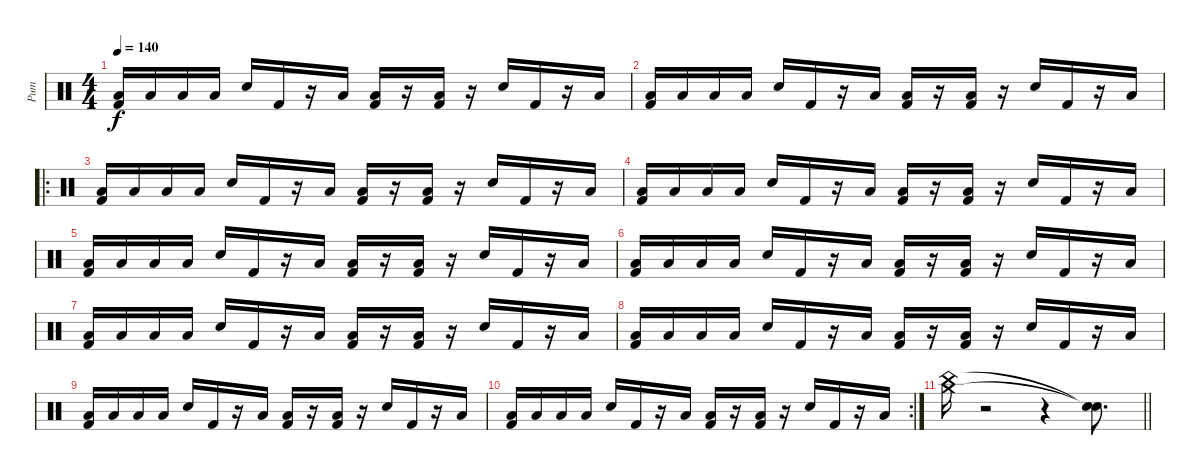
\track ("Рит" "Рит") {instrument percussion}
\staff {score}
\articulation defaults
\ts (4 4)
\tempo 140
\clef neutral
\ks c
("Low Floor Tom (hit)" "Kick (hit) 2").16{dy f} "Low Floor Tom (hit)".16 "Low Floor Tom (hit)".16 "Low Floor Tom (hit)".16 "Snare (hit) 2".16 "Kick (hit) 2".16 r.16 "Low Tom (hit)".16 ("Low Floor Tom (hit)" "Kick (hit) 2").16 r.16 ("Low Floor Tom (hit)" "Kick (hit) 2").16 r.16 "Snare (hit) 2".16 "Kick (hit) 2".16 r.16 "Low Tom (hit)".16 |
("Low Floor Tom (hit)" "Kick (hit) 2").16 "Low Floor Tom (hit)".16 "Low Floor Tom (hit)".16 "Low Floor Tom (hit)".16 "Snare (hit) 2".16 "Kick (hit) 2".16 r.16 "Low Tom (hit)".16 ("Low Floor Tom (hit)" "Kick (hit) 2").16 r.16 ("Low Floor Tom (hit)" "Kick (hit) 2").16 r.16 "Snare (hit) 2".16 "Kick (hit) 2".16 r.16 "Low Tom (hit)".16 |
\ro
("Low Floor Tom (hit)" "Kick (hit) 2").16{volume 16 balance 0} "Low Floor Tom (hit)".16{balance 16} "Low Floor Tom (hit)".16{balance 0} "Low Floor Tom (hit)".16{balance 16} "Snare (hit) 2".16{balance 0} "Kick (hit) 2".16{balance 16} r.16 "Low Tom (hit)".16{balance 0} ("Low Floor Tom (hit)" "Kick (hit) 2").16{balance 16} r.16 ("Low Floor Tom (hit)" "Kick (hit) 2").16{balance 0} r.16 "Snare (hit) 2".16{balance 0} "Kick (hit) 2".16{balance 0} r.16 "Low Tom (hit)".16{balance 16} |
("Low Floor Tom (hit)" "Kick (hit) 2").16{volume 14 balance 0} "Low Floor Tom (hit)".16{balance 16} "Low Floor Tom (hit)".16{balance 0} "Low Floor Tom (hit)".16{balance 16} "Snare (hit) 2".16{balance 0} "Kick (hit) 2".16{balance 16} r.16 "Low Tom (hit)".16{balance 0} ("Low Floor Tom (hit)" "Kick (hit) 2").16{balance 16} r.16 ("Low Floor Tom (hit)" "Kick (hit) 2").16{balance 0} r.16 "Snare (hit) 2".16{balance 0} "Kick (hit) 2".16{balance 0} r.16 "Low Tom (hit)".16{balance 16} |
("Low Floor Tom (hit)" "Kick (hit) 2").16{volume 12 balance 0} "Low Floor Tom (hit)".16{balance 16} "Low Floor Tom (hit)".16{balance 0} "Low Floor Tom (hit)".16{balance 16} "Snare (hit) 2".16{balance 0} "Kick (hit) 2".16{balance 16} r.16 "Low Tom (hit)".16{balance 0} ("Low Floor Tom (hit)" "Kick (hit) 2").16{balance 16} r.16 ("Low Floor Tom (hit)" "Kick (hit) 2").16{balance 0} r.16 "Snare (hit) 2".16{balance 0} "Kick (hit) 2".16{balance 0} r.16 "Low Tom (hit)".16{balance 16} |
("Low Floor Tom (hit)" "Kick (hit) 2").16{volume 10 balance 0} "Low Floor Tom (hit)".16{balance 16} "Low Floor Tom (hit)".16{balance 0} "Low Floor Tom (hit)".16{balance 16} "Snare (hit) 2".16{balance 0} "Kick (hit) 2".16{balance 16} r.16 "Low Tom (hit)".16{balance 0} ("Low Floor Tom (hit)" "Kick (hit) 2").16{balance 16} r.16 ("Low Floor Tom (hit)" "Kick (hit) 2").16{balance 0} r.16 "Snare (hit) 2".16{balance 0} "Kick (hit) 2".16{balance 0} r.16 "Low Tom (hit)".16{balance 16} |
("Low Floor Tom (hit)" "Kick (hit) 2").16{volume 8 balance 0} "Low Floor Tom (hit)".16{balance 16} "Low Floor Tom (hit)".16{balance 0} "Low Floor Tom (hit)".16{balance 16} "Snare (hit) 2".16{balance 0} "Kick (hit) 2".16{balance 16} r.16 "Low Tom (hit)".16{balance 0} ("Low Floor Tom (hit)" "Kick (hit) 2").16{balance 16} r.16 ("Low Floor Tom (hit)" "Kick (hit) 2").16{balance 0} r.16 "Snare (hit) 2".16{balance 0} "Kick (hit) 2".16{balance 0} r.16 "Low Tom (hit)".16{balance 16} |
("Low Floor Tom (hit)" "Kick (hit) 2").16{volume 7 balance 0} "Low Floor Tom (hit)".16{balance 16} "Low Floor Tom (hit)".16{balance 0} "Low Floor Tom (hit)".16{balance 16} "Snare (hit) 2".16{balance 0} "Kick (hit) 2".16{balance 16} r.16 "Low Tom (hit)".16{balance 0} ("Low Floor Tom (hit)" "Kick (hit) 2").16{balance 16} r.16 ("Low Floor Tom (hit)" "Kick (hit) 2").16{balance 0} r.16 "Snare (hit) 2".16{balance 0} "Kick (hit) 2".16{balance 0} r.16 "Low Tom (hit)".16{balance 16} |
("Low Floor Tom (hit)" "Kick (hit) 2").16{volume 6 balance 0} "Low Floor Tom (hit)".16{balance 16} "Low Floor Tom (hit)".16{balance 0} "Low Floor Tom (hit)".16{balance 16} "Snare (hit) 2".16{balance 0} "Kick (hit) 2".16{balance 16} r.16 "Low Tom (hit)".16{balance 0} ("Low Floor Tom (hit)" "Kick (hit) 2").16{balance 16} r.16 ("Low Floor Tom (hit)" "Kick (hit) 2").16{balance 0} r.16 "Snare (hit) 2".16{balance 0} "Kick (hit) 2".16{balance 0} r.16 "Low Tom (hit)".16{balance 16} |
\rc 2
("Low Floor Tom (hit)" "Kick (hit) 2").16{volume 5 balance 0} "Low Floor Tom (hit)".16{balance 16} "Low Floor Tom (hit)".16{balance 0} "Low Floor Tom (hit)".16{balance 16} "Snare (hit) 2".16{balance 0} "Kick (hit) 2".16{balance 16} r.16 "Low Tom (hit)".16{balance 0} ("Low Floor Tom (hit)" "Kick (hit) 2").16{balance 16} r.16 ("Low Floor Tom (hit)" "Kick (hit) 2").16{balance 0} r.16 "Snare (hit) 2".16{balance 0} "Kick (hit) 2".16{balance 0} r.16 "Low Tom (hit)".16{balance 16} |
\barLineRight lightlight
("China (hit)" "Crash medium (hit)").16 r.2 r.4 ("Snare (hit)"{t} "Snare (hit)"{t}).8{d}
